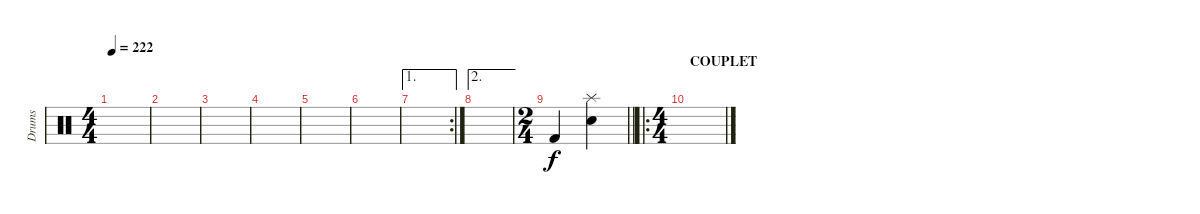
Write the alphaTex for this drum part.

\track ("Drums" "Drums") {instrument percussion}
\staff {score}
\articulation defaults
\ts (4 4)
\tempo 222
\clef neutral
\ks c
|
|
|
|
|
|
\ae 1
\rc 2
|
\ae 2
|
\ts (2 4)
\barLineRight lightlight "Kick (hit) 2".4
("Splash (hit)" "Snare (hit) 2").4 |
\ro
\ts (4 4)
\section ("" "COUPLET")
